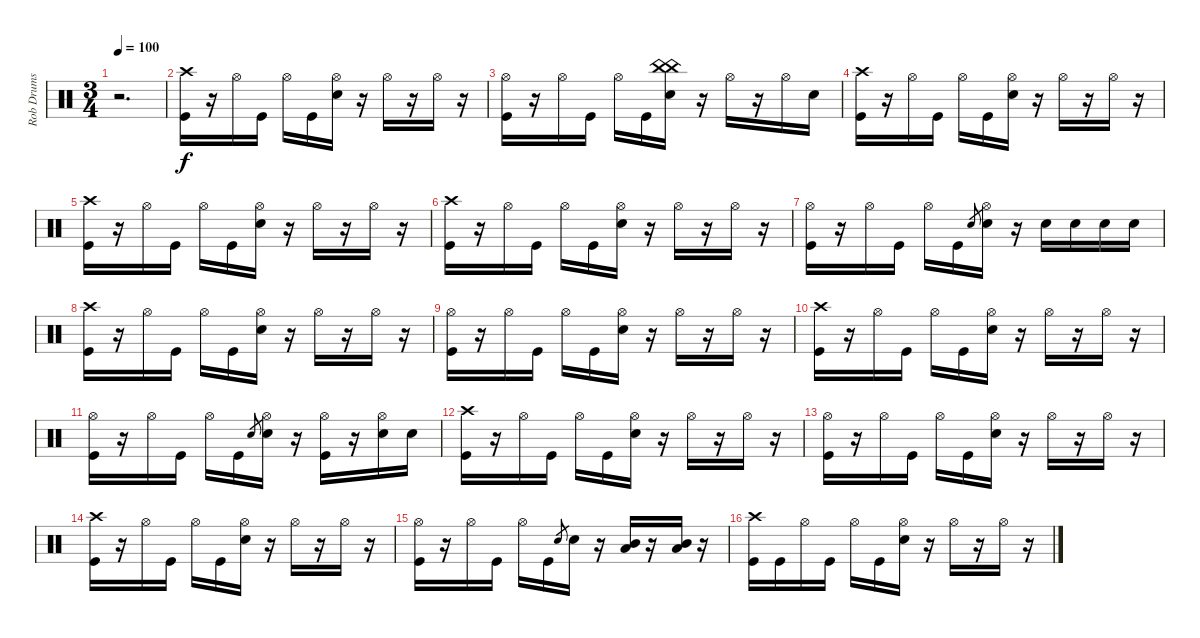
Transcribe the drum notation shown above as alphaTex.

\track ("Rob Drums" "Rob Drums") {instrument percussion}
\staff {score}
\articulation defaults
\ts (3 4)
\tempo 100
\clef neutral
\ks c
r.2{d dy f} |
("Crash high (hit)" "Kick (hit)").16 r.16 "Hi-Hat (open)".16 "Kick (hit)".16 "Hi-Hat (open)".16 "Kick (hit)".16 ("Hi-Hat (open)" "Snare (hit) 2").16 r.16 "Hi-Hat (open)".16 r.16 "Hi-Hat (open)".16 r.16 |
("Hi-Hat (open)" "Kick (hit)").16 r.16 "Hi-Hat (open)".16 "Kick (hit)".16 "Hi-Hat (open)".16 "Kick (hit)".16 ("China (hit)" "China (hit)" "Snare (hit) 2").16 r.16 "Hi-Hat (open)".16 r.16 "Hi-Hat (open)".16 "Snare (hit) 2".16 |
("Crash high (hit)" "Kick (hit)").16 r.16 "Hi-Hat (open)".16 "Kick (hit)".16 "Hi-Hat (open)".16 "Kick (hit)".16 ("Hi-Hat (open)" "Snare (hit) 2").16 r.16 "Hi-Hat (open)".16 r.16 "Hi-Hat (open)".16 r.16 |
("Crash high (hit)" "Kick (hit)").16 r.16 "Hi-Hat (open)".16 "Kick (hit)".16 "Hi-Hat (open)".16 "Kick (hit)".16 ("Hi-Hat (open)" "Snare (hit) 2").16 r.16 "Hi-Hat (open)".16 r.16 "Hi-Hat (open)".16 r.16 |
("Crash high (hit)" "Kick (hit)").16 r.16 "Hi-Hat (open)".16 "Kick (hit)".16 "Hi-Hat (open)".16 "Kick (hit)".16 ("Hi-Hat (open)" "Snare (hit) 2").16 r.16 "Hi-Hat (open)".16 r.16 "Hi-Hat (open)".16 r.16 |
("Hi-Hat (open)" "Kick (hit)").16 r.16 "Hi-Hat (open)".16 "Kick (hit)".16 "Hi-Hat (open)".16 "Kick (hit)".16 "Snare (hit) 2".8{gr} ("Hi-Hat (open)" "Snare (hit) 2").16 r.16 "Snare (hit) 2".16 "Snare (hit) 2".16 "Snare (hit) 2".16 "Snare (hit) 2".16 |
("Crash high (hit)" "Kick (hit)").16 r.16 "Hi-Hat (open)".16 "Kick (hit)".16 "Hi-Hat (open)".16 "Kick (hit)".16 ("Hi-Hat (open)" "Snare (hit) 2").16 r.16 "Hi-Hat (open)".16 r.16 "Hi-Hat (open)".16 r.16 |
("Hi-Hat (open)" "Kick (hit)").16 r.16 "Hi-Hat (open)".16 "Kick (hit)".16 "Hi-Hat (open)".16 "Kick (hit)".16 ("Hi-Hat (open)" "Snare (hit) 2").16 r.16 "Hi-Hat (open)".16 r.16 "Hi-Hat (open)".16 r.16 |
("Crash high (hit)" "Kick (hit)").16 r.16 "Hi-Hat (open)".16 "Kick (hit)".16 "Hi-Hat (open)".16 "Kick (hit)".16 ("Hi-Hat (open)" "Snare (hit) 2").16 r.16 "Hi-Hat (open)".16 r.16 "Hi-Hat (open)".16 r.16 |
("Hi-Hat (open)" "Kick (hit)").16 r.16 "Hi-Hat (open)".16 "Kick (hit)".16 "Hi-Hat (open)".16 "Kick (hit)".16 "Snare (hit) 2".8{gr} ("Hi-Hat (open)" "Snare (hit) 2").16 r.16 ("Hi-Hat (open)" "Kick (hit)").16 r.16 ("Hi-Hat (open)" "Snare (hit) 2").16 "Snare (hit) 2".16 |
("Crash high (hit)" "Kick (hit)").16 r.16 "Hi-Hat (open)".16 "Kick (hit)".16 "Hi-Hat (open)".16 "Kick (hit)".16 ("Hi-Hat (open)" "Snare (hit) 2").16 r.16 "Hi-Hat (open)".16 r.16 "Hi-Hat (open)".16 r.16 |
("Hi-Hat (open)" "Kick (hit)").16 r.16 "Hi-Hat (open)".16 "Kick (hit)".16 "Hi-Hat (open)".16 "Kick (hit)".16 ("Hi-Hat (open)" "Snare (hit) 2").16 r.16 "Hi-Hat (open)".16 r.16 "Hi-Hat (open)".16 r.16 |
("Crash high (hit)" "Kick (hit)").16 r.16 "Hi-Hat (open)".16 "Kick (hit)".16 "Hi-Hat (open)".16 "Kick (hit)".16 ("Hi-Hat (open)" "Snare (hit) 2").16 r.16 "Hi-Hat (open)".16 r.16 "Hi-Hat (open)".16 r.16 |
("Hi-Hat (open)" "Kick (hit)").16 r.16 "Hi-Hat (open)".16 "Kick (hit)".16 "Hi-Hat (open)".16 "Kick (hit)".16 "Snare (hit) 2".8{gr} "Snare (hit) 2".16 r.16 ("Mid Tom (hit)" "Low Tom (hit)").16 r.16 ("Mid Tom (hit)" "Low Tom (hit)").16 r.16 |
("Crash high (hit)" "Kick (hit)").16 "Kick (hit)".16 "Hi-Hat (open)".16 "Kick (hit)".16 "Hi-Hat (open)".16 "Kick (hit)".16 ("Hi-Hat (open)" "Snare (hit) 2").16 r.16 "Hi-Hat (open)".16 r.16 "Hi-Hat (open)".16 r.16
